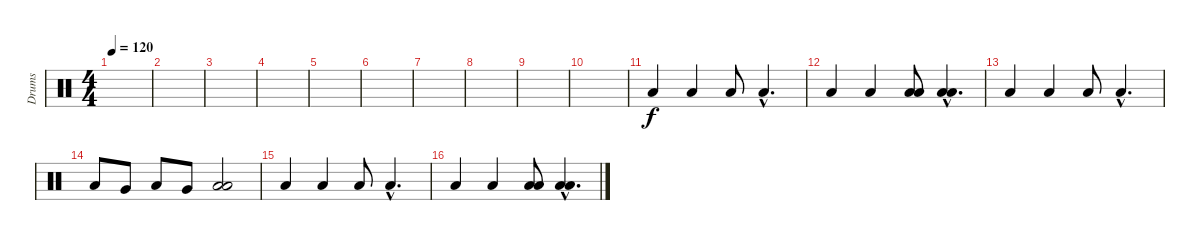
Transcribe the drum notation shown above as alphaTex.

\track ("Drums" "Drums") {instrument percussion}
\staff {score}
\articulation defaults
\ts (4 4)
\tempo 120
\clef neutral
\ks c
|
|
|
|
|
|
|
|
|
|
"Low Floor Tom (hit)".4 "Low Floor Tom (hit)".4 "Low Tom (hit)".8 "Low Tom (hit)"{hac}.4{d} |
"Low Floor Tom (hit)".4 "Low Floor Tom (hit)".4 ("Low Tom (hit)" "Low Floor Tom (hit)").8 ("Low Tom (hit)"{hac} "Low Floor Tom (hit)"{hac}).4{d} |
"Low Floor Tom (hit)".4 "Low Floor Tom (hit)".4 "Low Tom (hit)".8 "Low Tom (hit)"{hac}.4{d} |
"Low Tom (hit)".8 "Very Low Tom (hit)".8 "Low Tom (hit)".8 "Very Low Tom (hit)".8 ("Low Tom (hit)" "Low Floor Tom (hit)").2 |
"Low Floor Tom (hit)".4 "Low Floor Tom (hit)".4 "Low Tom (hit)".8 "Low Tom (hit)"{hac}.4{d} |
"Low Floor Tom (hit)".4 "Low Floor Tom (hit)".4 ("Low Tom (hit)" "Low Floor Tom (hit)").8 ("Low Tom (hit)"{hac} "Low Floor Tom (hit)"{hac}).4{d}
